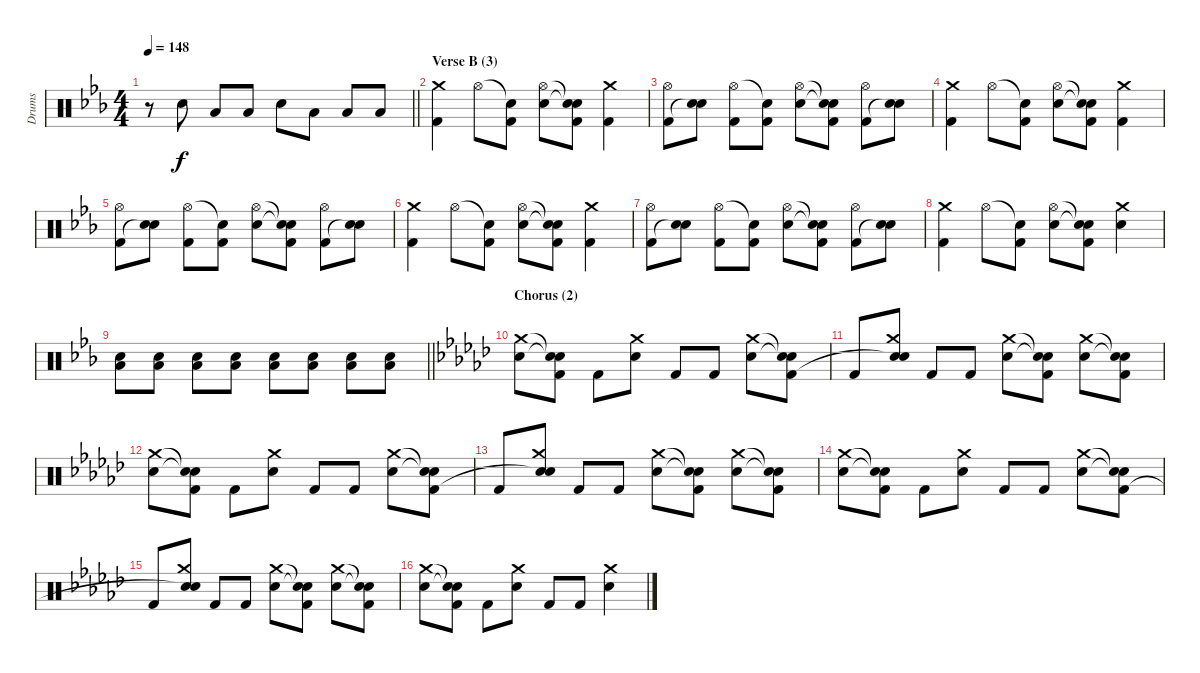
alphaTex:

\track ("Drums" "Drums") {instrument percussion}
\staff {score}
\articulation defaults
\ts (4 4)
\tempo 148
\clef neutral
\barLineRight lightlight
\ks eb
r.8{dy f} "Electric Snare (hit)".8 "Low Floor Tom (hit)".8 "Low Floor Tom (hit)".8 "Electric Snare (hit)".8 "Low Floor Tom (hit)".8 "Low Floor Tom (hit)".8 "Low Floor Tom (hit)".8 |
\section ("" "Verse B (3)")
("Crash medium (hit)" "Kick (hit) 2").4 "Hi-Hat (open)".8 ("Snare (hit)"{t} "Kick (hit) 2").8 ("Hi-Hat (open)" "Electric Snare (hit)").8 ("Snare (hit)"{t} "Snare (hit)"{t} "Kick (hit) 2").8 ("Crash medium (hit)" "Kick (hit) 2").4 |
("Hi-Hat (open)" "Kick (hit) 2").8 ("Electric Snare (hit)" "Snare (hit)"{t}).8 ("Hi-Hat (open)" "Kick (hit) 2").8 ("Snare (hit)"{t} "Kick (hit) 2").8 ("Hi-Hat (open)" "Electric Snare (hit)").8 ("Snare (hit)"{t} "Snare (hit)"{t} "Kick (hit) 2").8 ("Hi-Hat (open)" "Kick (hit) 2").8 ("Electric Snare (hit)" "Snare (hit)"{t}).8 |
("Crash medium (hit)" "Kick (hit) 2").4 "Hi-Hat (open)".8 ("Snare (hit)"{t} "Kick (hit) 2").8 ("Hi-Hat (open)" "Electric Snare (hit)").8 ("Snare (hit)"{t} "Snare (hit)"{t} "Kick (hit) 2").8 ("Crash medium (hit)" "Kick (hit) 2").4 |
("Hi-Hat (open)" "Kick (hit) 2").8 ("Electric Snare (hit)" "Snare (hit)"{t}).8 ("Hi-Hat (open)" "Kick (hit) 2").8 ("Snare (hit)"{t} "Kick (hit) 2").8 ("Hi-Hat (open)" "Electric Snare (hit)").8 ("Snare (hit)"{t} "Snare (hit)"{t} "Kick (hit) 2").8 ("Hi-Hat (open)" "Kick (hit) 2").8 ("Electric Snare (hit)" "Snare (hit)"{t}).8 |
("Crash medium (hit)" "Kick (hit) 2").4 "Hi-Hat (open)".8 ("Snare (hit)"{t} "Kick (hit) 2").8 ("Hi-Hat (open)" "Electric Snare (hit)").8 ("Snare (hit)"{t} "Snare (hit)"{t} "Kick (hit) 2").8 ("Crash medium (hit)" "Kick (hit) 2").4 |
("Hi-Hat (open)" "Kick (hit) 2").8 ("Electric Snare (hit)" "Snare (hit)"{t}).8 ("Hi-Hat (open)" "Kick (hit) 2").8 ("Snare (hit)"{t} "Kick (hit) 2").8 ("Hi-Hat (open)" "Electric Snare (hit)").8 ("Snare (hit)"{t} "Snare (hit)"{t} "Kick (hit) 2").8 ("Hi-Hat (open)" "Kick (hit) 2").8 ("Electric Snare (hit)" "Snare (hit)"{t}).8 |
("Crash medium (hit)" "Kick (hit) 2").4 "Hi-Hat (open)".8 ("Snare (hit)"{t} "Kick (hit) 2").8 ("Hi-Hat (open)" "Electric Snare (hit)").8 ("Snare (hit)"{t} "Snare (hit)"{t} "Kick (hit) 2").8 ("Crash medium (hit)" "Electric Snare (hit)").4 |
\barLineRight lightlight
("Electric Snare (hit)" "Low Floor Tom (hit)").8 ("Electric Snare (hit)" "Low Floor Tom (hit)").8 ("Electric Snare (hit)" "Low Floor Tom (hit)").8 ("Electric Snare (hit)" "Low Floor Tom (hit)").8 ("Electric Snare (hit)" "Low Floor Tom (hit)").8 ("Electric Snare (hit)" "Low Floor Tom (hit)").8 ("Electric Snare (hit)" "Low Floor Tom (hit)").8 ("Electric Snare (hit)" "Low Floor Tom (hit)").8 |
\section ("" "Chorus (2)")
\ks ebminor
("Crash medium (hit)" "Electric Snare (hit)").8 ("Snare (hit)"{t} "Snare (hit)"{t} "Kick (hit) 2").8 "Kick (hit) 2".8 ("Crash medium (hit)" "Electric Snare (hit)").8 "Kick (hit) 2".8 "Kick (hit) 2".8 ("Crash medium (hit)" "Electric Snare (hit)").8 ("Snare (hit)"{t} "Snare (hit)"{t} "Kick (hit) 2").8 |
"Kick (hit) 2".8 ("Crash medium (hit)" "Electric Snare (hit)" "Snare (hit)"{t}).8 "Kick (hit) 2".8 "Kick (hit) 2".8 ("Crash medium (hit)" "Electric Snare (hit)").8 ("Snare (hit)"{t} "Snare (hit)"{t} "Kick (hit) 2").8 ("Crash medium (hit)" "Electric Snare (hit)").8 ("Snare (hit)"{t} "Snare (hit)"{t} "Kick (hit) 2").8 |
("Crash medium (hit)" "Electric Snare (hit)").8 ("Snare (hit)"{t} "Snare (hit)"{t} "Kick (hit) 2").8 "Kick (hit) 2".8 ("Crash medium (hit)" "Electric Snare (hit)").8 "Kick (hit) 2".8 "Kick (hit) 2".8 ("Crash medium (hit)" "Electric Snare (hit)").8 ("Snare (hit)"{t} "Snare (hit)"{t} "Kick (hit) 2").8 |
"Kick (hit) 2".8 ("Crash medium (hit)" "Electric Snare (hit)" "Snare (hit)"{t}).8 "Kick (hit) 2".8 "Kick (hit) 2".8 ("Crash medium (hit)" "Electric Snare (hit)").8 ("Snare (hit)"{t} "Snare (hit)"{t} "Kick (hit) 2").8 ("Crash medium (hit)" "Electric Snare (hit)").8 ("Snare (hit)"{t} "Snare (hit)"{t} "Kick (hit) 2").8 |
("Crash medium (hit)" "Electric Snare (hit)").8 ("Snare (hit)"{t} "Snare (hit)"{t} "Kick (hit) 2").8 "Kick (hit) 2".8 ("Crash medium (hit)" "Electric Snare (hit)").8 "Kick (hit) 2".8 "Kick (hit) 2".8 ("Crash medium (hit)" "Electric Snare (hit)").8 ("Snare (hit)"{t} "Snare (hit)"{t} "Kick (hit) 2").8 |
"Kick (hit) 2".8 ("Crash medium (hit)" "Electric Snare (hit)" "Snare (hit)"{t}).8 "Kick (hit) 2".8 "Kick (hit) 2".8 ("Crash medium (hit)" "Electric Snare (hit)").8 ("Snare (hit)"{t} "Snare (hit)"{t} "Kick (hit) 2").8 ("Crash medium (hit)" "Electric Snare (hit)").8 ("Snare (hit)"{t} "Snare (hit)"{t} "Kick (hit) 2").8 |
("Crash medium (hit)" "Electric Snare (hit)").8 ("Snare (hit)"{t} "Snare (hit)"{t} "Kick (hit) 2").8 "Kick (hit) 2".8 ("Crash medium (hit)" "Electric Snare (hit)").8 "Kick (hit) 2".8 "Kick (hit) 2".8 ("Crash medium (hit)" "Electric Snare (hit)").4
